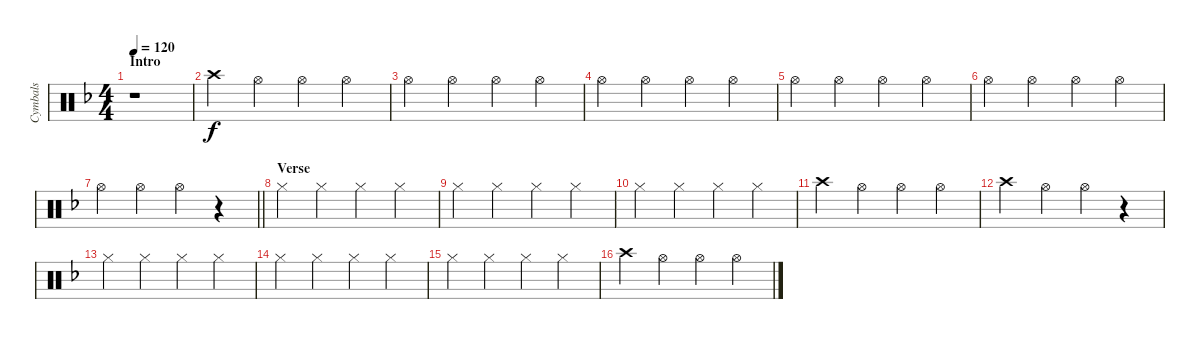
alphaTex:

\track ("Cymbals" "Cymbals") {instrument percussion}
\staff {score}
\articulation defaults
\ts (4 4)
\section ("" "Intro")
\tempo 120
\clef neutral
\ks f
r.1{dy f} |
"Crash high (hit)".4 "Hi-Hat (open)".4 "Hi-Hat (open)".4 "Hi-Hat (open)".4 |
"Hi-Hat (open)".4 "Hi-Hat (open)".4 "Hi-Hat (open)".4 "Hi-Hat (open)".4 |
"Hi-Hat (open)".4 "Hi-Hat (open)".4 "Hi-Hat (open)".4 "Hi-Hat (open)".4 |
"Hi-Hat (open)".4 "Hi-Hat (open)".4 "Hi-Hat (open)".4 "Hi-Hat (open)".4 |
"Hi-Hat (open)".4 "Hi-Hat (open)".4 "Hi-Hat (open)".4 "Hi-Hat (open)".4 |
\barLineRight lightlight "Hi-Hat (open)".4 "Hi-Hat (open)".4 "Hi-Hat (open)".4
r.4 |
\section ("" "Verse")
"Hi-Hat (closed)".4 "Hi-Hat (closed)".4 "Hi-Hat (closed)".4 "Hi-Hat (closed)".4 |
"Hi-Hat (closed)".4 "Hi-Hat (closed)".4 "Hi-Hat (closed)".4 "Hi-Hat (closed)".4 |
"Hi-Hat (closed)".4 "Hi-Hat (closed)".4 "Hi-Hat (closed)".4 "Hi-Hat (closed)".4 |
"Crash high (hit)".4 "Hi-Hat (open)".4 "Hi-Hat (open)".4 "Hi-Hat (open)".4 |
"Crash high (hit)".4 "Hi-Hat (open)".4 "Hi-Hat (open)".4 r.4 |
"Hi-Hat (closed)".4 "Hi-Hat (closed)".4 "Hi-Hat (closed)".4 "Hi-Hat (closed)".4 |
"Hi-Hat (closed)".4 "Hi-Hat (closed)".4 "Hi-Hat (closed)".4 "Hi-Hat (closed)".4 |
"Hi-Hat (closed)".4 "Hi-Hat (closed)".4 "Hi-Hat (closed)".4 "Hi-Hat (closed)".4 |
"Crash high (hit)".4 "Hi-Hat (open)".4 "Hi-Hat (open)".4 "Hi-Hat (open)".4
